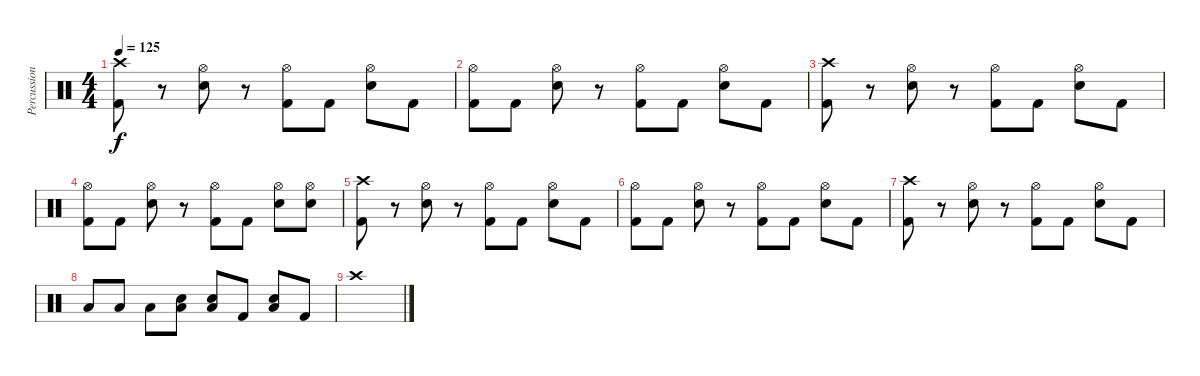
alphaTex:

\track ("Percussion" "Percussion") {instrument percussion}
\staff {score}
\articulation defaults
\ts (4 4)
\tempo 125
\clef neutral
\ks c
("Crash high (hit)" "Kick (hit) 2").8{dy f} r.8 ("Hi-Hat (open)" "Snare (hit) 2").8 r.8 ("Hi-Hat (open)" "Kick (hit) 2").8 "Kick (hit) 2".8 ("Hi-Hat (open)" "Snare (hit) 2").8 "Kick (hit) 2".8 |
("Hi-Hat (open)" "Kick (hit) 2").8 "Kick (hit) 2".8 ("Hi-Hat (open)" "Snare (hit) 2").8 r.8 ("Hi-Hat (open)" "Kick (hit) 2").8 "Kick (hit) 2".8 ("Hi-Hat (open)" "Snare (hit) 2").8 "Kick (hit) 2".8 |
("Crash high (hit)" "Kick (hit) 2").8 r.8 ("Hi-Hat (open)" "Snare (hit) 2").8 r.8 ("Hi-Hat (open)" "Kick (hit) 2").8 "Kick (hit) 2".8 ("Hi-Hat (open)" "Snare (hit) 2").8 "Kick (hit) 2".8 |
("Hi-Hat (open)" "Kick (hit) 2").8 "Kick (hit) 2".8 ("Hi-Hat (open)" "Snare (hit) 2").8 r.8 ("Hi-Hat (open)" "Kick (hit) 2").8 "Kick (hit) 2".8 ("Hi-Hat (open)" "Snare (hit) 2").8 ("Hi-Hat (open)" "Snare (hit) 2").8 |
("Crash high (hit)" "Kick (hit) 2").8 r.8 ("Hi-Hat (open)" "Snare (hit) 2").8 r.8 ("Hi-Hat (open)" "Kick (hit) 2").8 "Kick (hit) 2".8 ("Hi-Hat (open)" "Snare (hit) 2").8 "Kick (hit) 2".8 |
("Hi-Hat (open)" "Kick (hit) 2").8 "Kick (hit) 2".8 ("Hi-Hat (open)" "Snare (hit) 2").8 r.8 ("Hi-Hat (open)" "Kick (hit) 2").8 "Kick (hit) 2".8 ("Hi-Hat (open)" "Snare (hit) 2").8 "Kick (hit) 2".8 |
("Crash high (hit)" "Kick (hit) 2").8 r.8 ("Hi-Hat (open)" "Snare (hit) 2").8 r.8 ("Hi-Hat (open)" "Kick (hit) 2").8 "Kick (hit) 2".8 ("Hi-Hat (open)" "Snare (hit) 2").8 "Kick (hit) 2".8 |
"Low Floor Tom (hit)".8 "Low Floor Tom (hit)".8 "Low Floor Tom (hit)".8 ("Low Floor Tom (hit)" "Snare (hit) 2").8 ("Low Floor Tom (hit)" "Snare (hit) 2").8 "Kick (hit) 2".8 ("Low Floor Tom (hit)" "Snare (hit) 2").8 "Kick (hit) 2".8 |
"Crash high (hit)".1
